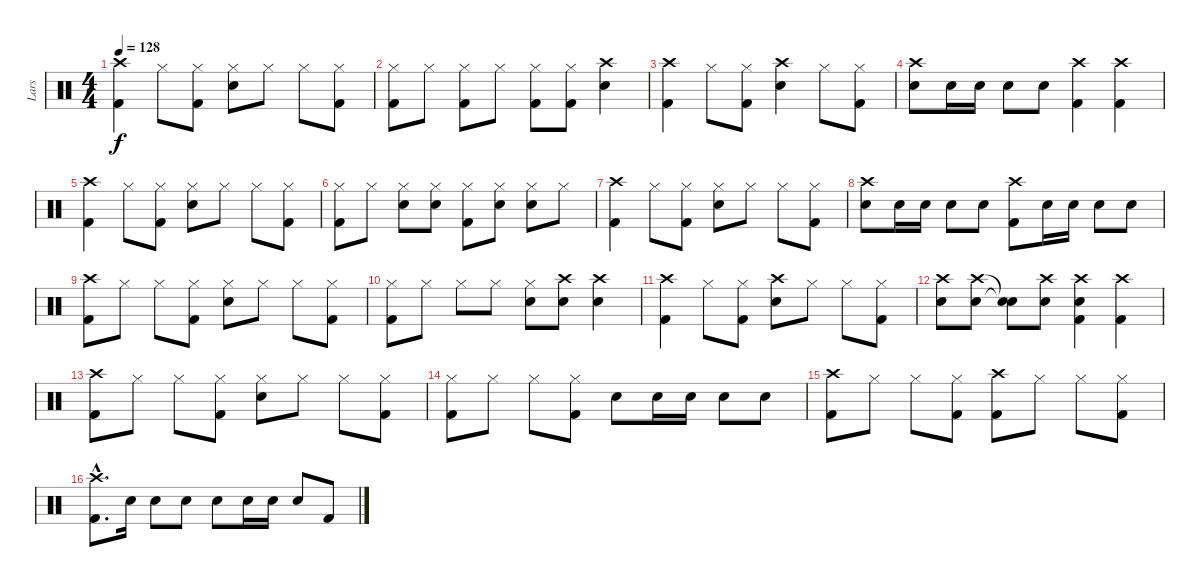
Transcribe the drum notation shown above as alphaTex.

\track ("Lars" "Lars") {instrument percussion}
\staff {score}
\articulation defaults
\ts (4 4)
\tempo 128
\clef neutral
\ks c
("Crash high (hit)" "Kick (hit) 2").4{dy f} "Hi-Hat (closed)".8 ("Kick (hit) 2" "Hi-Hat (closed)").8 ("Hi-Hat (closed)" "Electric Snare (hit)").8 "Hi-Hat (closed)".8 "Hi-Hat (closed)".8 ("Kick (hit) 2" "Hi-Hat (closed)").8 |
("Hi-Hat (closed)" "Kick (hit) 2").8 "Hi-Hat (closed)".8 ("Hi-Hat (closed)" "Kick (hit) 2").8 "Hi-Hat (closed)".8 ("Hi-Hat (closed)" "Kick (hit) 2").8 ("Hi-Hat (closed)" "Kick (hit) 2").8 ("Crash high (hit)" "Snare (hit) 2").4 |
("Crash high (hit)" "Kick (hit) 2").4 "Hi-Hat (closed)".8 ("Hi-Hat (closed)" "Kick (hit) 2").8 ("Crash high (hit)" "Electric Snare (hit)").4 "Hi-Hat (closed)".8 ("Hi-Hat (closed)" "Kick (hit) 2").8 |
("Crash high (hit)" "Electric Snare (hit)").8 "Electric Snare (hit)".16 "Electric Snare (hit)".16 "Electric Snare (hit)".8 "Electric Snare (hit)".8 ("Crash high (hit)" "Kick (hit) 2").4 ("Crash high (hit)" "Kick (hit) 2").4 |
("Crash high (hit)" "Kick (hit) 2").4 "Hi-Hat (closed)".8 ("Hi-Hat (closed)" "Kick (hit) 2").8 ("Hi-Hat (closed)" "Electric Snare (hit)").8 "Hi-Hat (closed)".8 "Hi-Hat (closed)".8 ("Hi-Hat (closed)" "Kick (hit) 2").8 |
("Hi-Hat (closed)" "Kick (hit) 2").8 "Hi-Hat (closed)".8 ("Hi-Hat (closed)" "Electric Snare (hit)").8 ("Hi-Hat (closed)" "Electric Snare (hit)").8 ("Hi-Hat (closed)" "Kick (hit) 2").8 ("Hi-Hat (closed)" "Electric Snare (hit)").8 ("Hi-Hat (closed)" "Electric Snare (hit)").8 "Hi-Hat (closed)".8 |
("Crash high (hit)" "Kick (hit) 2").4 "Hi-Hat (closed)".8 ("Kick (hit) 2" "Hi-Hat (closed)").8 ("Hi-Hat (closed)" "Electric Snare (hit)").8 "Hi-Hat (closed)".8 "Hi-Hat (closed)".8 ("Kick (hit) 2" "Hi-Hat (closed)").8 |
("Crash high (hit)" "Electric Snare (hit)").8 "Electric Snare (hit)".16 "Electric Snare (hit)".16 "Electric Snare (hit)".8 "Electric Snare (hit)".8 ("Crash high (hit)" "Kick (hit) 2").8 "Electric Snare (hit)".16 "Electric Snare (hit)".16 "Electric Snare (hit)".8 "Electric Snare (hit)".8 |
("Crash high (hit)" "Kick (hit) 2").8 "Hi-Hat (closed)".8 "Hi-Hat (closed)".8 ("Hi-Hat (closed)" "Kick (hit) 2").8 ("Hi-Hat (closed)" "Electric Snare (hit)").8 "Hi-Hat (closed)".8 "Hi-Hat (closed)".8 ("Hi-Hat (closed)" "Kick (hit) 2").8 |
("Hi-Hat (closed)" "Kick (hit) 2").8 "Hi-Hat (closed)".8 "Hi-Hat (closed)".8 "Hi-Hat (closed)".8 ("Hi-Hat (closed)" "Electric Snare (hit)").8 ("Crash high (hit)" "Electric Snare (hit)").8 ("Crash high (hit)" "Electric Snare (hit)").4 |
("Crash high (hit)" "Kick (hit) 2").4 "Hi-Hat (closed)".8 ("Hi-Hat (closed)" "Kick (hit) 2").8 ("Crash high (hit)" "Electric Snare (hit)").8 "Hi-Hat (closed)".8 "Hi-Hat (closed)".8 ("Hi-Hat (closed)" "Kick (hit) 2").8 |
("Crash high (hit)" "Electric Snare (hit)").8 ("Crash high (hit)" "Electric Snare (hit)").8 ("Snare (hit)"{t} "Snare (hit)"{t}).8 ("Crash high (hit)" "Electric Snare (hit)").8 ("Crash high (hit)" "Electric Snare (hit)" "Kick (hit) 2").4 ("Crash high (hit)" "Kick (hit) 2").4 |
("Crash high (hit)" "Kick (hit) 2").8 "Hi-Hat (closed)".8 "Hi-Hat (closed)".8 ("Hi-Hat (closed)" "Kick (hit) 2").8 ("Hi-Hat (closed)" "Electric Snare (hit)").8 "Hi-Hat (closed)".8 "Hi-Hat (closed)".8 ("Hi-Hat (closed)" "Kick (hit) 2").8 |
("Hi-Hat (closed)" "Kick (hit) 2").8 "Hi-Hat (closed)".8 "Hi-Hat (closed)".8 ("Hi-Hat (closed)" "Kick (hit) 2").8 "Electric Snare (hit)".8 "Electric Snare (hit)".16 "Electric Snare (hit)".16 "Electric Snare (hit)".8 "Electric Snare (hit)".8 |
("Crash high (hit)" "Kick (hit) 2").8 "Hi-Hat (closed)".8 "Hi-Hat (closed)".8 ("Hi-Hat (closed)" "Kick (hit) 2").8 ("Crash high (hit)" "Kick (hit) 2").8 "Hi-Hat (closed)".8 "Hi-Hat (closed)".8 ("Hi-Hat (closed)" "Kick (hit) 2").8 |
("Crash high (hit)"{hac} "Kick (hit) 2"{hac}).8{d} "Electric Snare (hit)".16 "Electric Snare (hit)".8 "Electric Snare (hit)".8 "Electric Snare (hit)".8 "Electric Snare (hit)".16 "Electric Snare (hit)".16 "Electric Snare (hit)".8 "Kick (hit) 2".8
